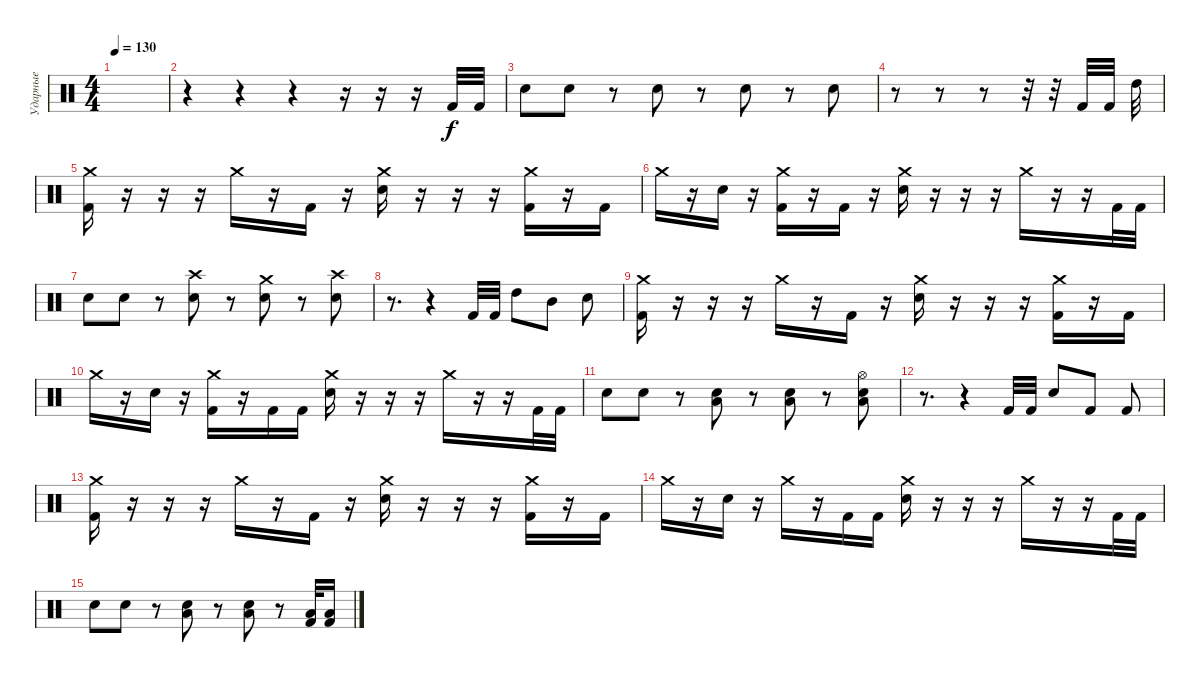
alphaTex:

\track ("Ударные" "Ударные") {instrument percussion}
\staff {score}
\articulation defaults
\ts (4 4)
\tempo 130
\clef neutral
\ks c
|
r.4 r.4 r.4 r.16 r.16 r.16 "Kick (hit) 2".32{dy f} "Kick (hit) 2".32 |
"Electric Snare (hit)".8 "Electric Snare (hit)".8 r.8 "Electric Snare (hit)".8 r.8 "Electric Snare (hit)".8 r.8 "Electric Snare (hit)".8 |
r.8 r.8 r.8 r.32 r.32 "Kick (hit) 2".32 "Kick (hit) 2".32 "High Tom (hit)".32 |
("Crash medium (hit)" "Kick (hit) 2").16 r.16 r.16 r.16 "Crash medium (hit)".16 r.16 "Kick (hit) 2".16 r.16 ("Crash medium (hit)" "Electric Snare (hit)").16 r.16 r.16 r.16 ("Crash medium (hit)" "Kick (hit) 2").16 r.16 "Kick (hit) 2".16 |
"Crash medium (hit)".16 r.16 "Electric Snare (hit)".16 r.16 ("Crash medium (hit)" "Kick (hit) 2").16 r.16 "Kick (hit) 2".16 r.16 ("Crash medium (hit)" "Electric Snare (hit)").16 r.16 r.16 r.16 "Crash medium (hit)".16 r.16 r.16 "Kick (hit) 2".32 "Kick (hit) 2".32 |
"Electric Snare (hit)".8 "Electric Snare (hit)".8 r.8 ("Crash high (hit)" "Electric Snare (hit)").8 r.8 ("Crash medium (hit)" "Electric Snare (hit)").8 r.8 ("Crash high (hit)" "Electric Snare (hit)").8 |
r.8{d} r.4 "Kick (hit) 2".32 "Kick (hit) 2".32 "High Tom (hit)".8 "Mid Tom (hit)".8 "Electric Snare (hit)".8 |
("Crash medium (hit)" "Kick (hit) 2").16 r.16 r.16 r.16 "Crash medium (hit)".16 r.16 "Kick (hit) 2".16 r.16 ("Crash medium (hit)" "Electric Snare (hit)").16 r.16 r.16 r.16 ("Crash medium (hit)" "Kick (hit) 2").16 r.16 "Kick (hit) 2".16 |
"Crash medium (hit)".16 r.16 "Electric Snare (hit)".16 r.16 ("Crash medium (hit)" "Kick (hit) 2").16 r.16 "Kick (hit) 2".16 "Kick (hit) 2".16 ("Crash medium (hit)" "Electric Snare (hit)").16 r.16 r.16 r.16 "Crash medium (hit)".16 r.16 r.16 "Kick (hit) 2".32 "Kick (hit) 2".32 |
"Electric Snare (hit)".8 "Electric Snare (hit)".8 r.8 ("Low Tom (hit)" "Electric Snare (hit)").8 r.8 ("Low Tom (hit)" "Electric Snare (hit)").8 r.8 ("Hi-Hat (open)" "Low Tom (hit)" "Electric Snare (hit)").8 |
r.8{d} r.4 "Kick (hit) 2".32 "Kick (hit) 2".32 "Electric Snare (hit)".8 "Kick (hit) 2".8 "Kick (hit) 2".8 |
("Crash medium (hit)" "Kick (hit) 2").16 r.16 r.16 r.16 "Crash medium (hit)".16 r.16 "Kick (hit) 2".16 r.16 ("Crash medium (hit)" "Electric Snare (hit)").16 r.16 r.16 r.16 ("Crash medium (hit)" "Kick (hit) 2").16 r.16 "Kick (hit) 2".16 |
"Crash medium (hit)".16 r.16 "Electric Snare (hit)".16 r.16 "Crash medium (hit)".16 r.16 "Kick (hit) 2".16 "Kick (hit) 2".16 ("Crash medium (hit)" "Electric Snare (hit)").16 r.16 r.16 r.16 "Crash medium (hit)".16 r.16 r.16 "Kick (hit) 2".32 "Kick (hit) 2".32 |
"Electric Snare (hit)".8 "Electric Snare (hit)".8 r.8 ("Low Tom (hit)" "Electric Snare (hit)").8 r.8 ("Low Tom (hit)" "Electric Snare (hit)").8 r.8 ("Kick (hit) 2" "Low Tom (hit)").32 ("Kick (hit) 2" "Low Tom (hit)").16
